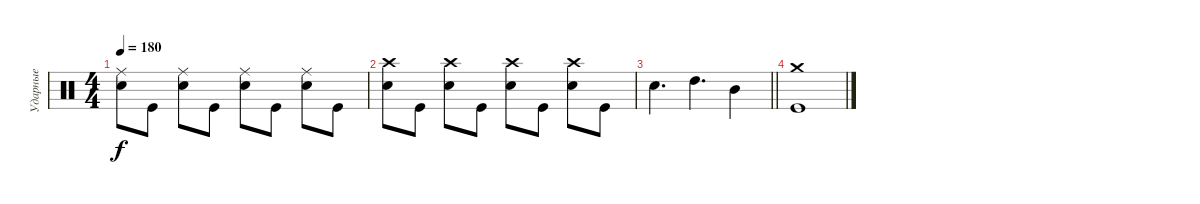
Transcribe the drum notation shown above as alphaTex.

\track ("Ударные" "Ударные") {instrument percussion}
\staff {score}
\articulation defaults
\ts (4 4)
\tempo 180
\clef neutral
\ks c
("Ride (middle)" "Electric Snare (hit)").8{dy f} "Kick (hit)".8 ("Ride (middle)" "Electric Snare (hit)").8 "Kick (hit)".8 ("Ride (middle)" "Electric Snare (hit)").8 "Kick (hit)".8 ("Ride (middle)" "Electric Snare (hit)").8 "Kick (hit)".8 |
("Crash high (hit)" "Electric Snare (hit)").8 "Kick (hit)".8 ("Crash high (hit)" "Electric Snare (hit)").8 "Kick (hit)".8 ("Crash high (hit)" "Electric Snare (hit)").8 "Kick (hit)".8 ("Crash high (hit)" "Electric Snare (hit)").8 "Kick (hit)".8 |
\barLineRight lightlight "Electric Snare (hit)".4{d} "High Tom (hit)".4{d} "Mid Tom (hit)".4
|
("Crash medium (hit)" "Kick (hit)").1
